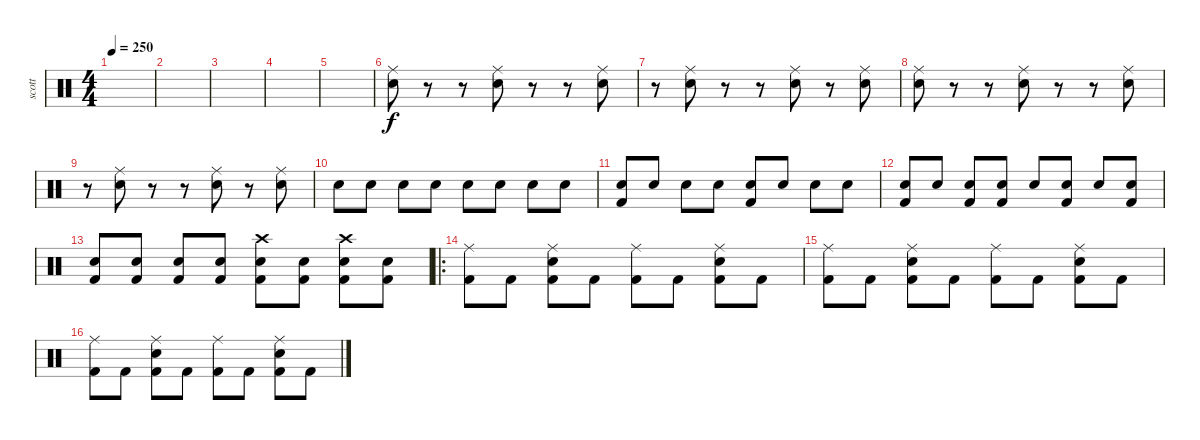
\track ("scott" "scott") {instrument percussion bank 10}
\staff {score}
\articulation defaults
\ts (4 4)
\tempo 250
\clef neutral
\ks c
|
|
|
|
|
("Electric Snare (hit)" "Ride (middle)").8 r.8 r.8 ("Electric Snare (hit)" "Ride (middle)").8 r.8 r.8 ("Electric Snare (hit)" "Ride (middle)").8 |
r.8 ("Electric Snare (hit)" "Ride (middle)").8 r.8 r.8 ("Electric Snare (hit)" "Ride (middle)").8 r.8 ("Electric Snare (hit)" "Ride (middle)").8 |
("Electric Snare (hit)" "Ride (middle)").8 r.8 r.8 ("Electric Snare (hit)" "Ride (middle)").8 r.8 r.8 ("Electric Snare (hit)" "Ride (middle)").8 |
r.8 ("Electric Snare (hit)" "Ride (middle)").8 r.8 r.8 ("Electric Snare (hit)" "Ride (middle)").8 r.8 ("Electric Snare (hit)" "Ride (middle)").8 |
"Electric Snare (hit)".8 "Electric Snare (hit)".8 "Electric Snare (hit)".8 "Electric Snare (hit)".8 "Electric Snare (hit)".8 "Electric Snare (hit)".8 "Electric Snare (hit)".8 "Electric Snare (hit)".8 |
("Kick (hit) 2" "Electric Snare (hit)").8 "Electric Snare (hit)".8 "Electric Snare (hit)".8 "Electric Snare (hit)".8 ("Kick (hit) 2" "Electric Snare (hit)").8 "Electric Snare (hit)".8 "Electric Snare (hit)".8 "Electric Snare (hit)".8 |
("Kick (hit) 2" "Electric Snare (hit)").8 "Electric Snare (hit)".8 ("Kick (hit) 2" "Electric Snare (hit)").8 ("Kick (hit) 2" "Electric Snare (hit)").8 "Electric Snare (hit)".8 ("Kick (hit) 2" "Electric Snare (hit)").8 "Electric Snare (hit)".8 ("Kick (hit) 2" "Electric Snare (hit)").8 |
("Kick (hit) 2" "Electric Snare (hit)").8 ("Kick (hit) 2" "Electric Snare (hit)").8 ("Kick (hit) 2" "Electric Snare (hit)").8 ("Kick (hit) 2" "Electric Snare (hit)").8 ("Kick (hit) 2" "Electric Snare (hit)" "Crash high (hit)").8 ("Kick (hit) 2" "Electric Snare (hit)").8 ("Kick (hit) 2" "Electric Snare (hit)" "Crash high (hit)").8 ("Kick (hit) 2" "Electric Snare (hit)").8 |
\ro
("Kick (hit) 2" "Ride (middle)").8 "Kick (hit) 2".8 ("Kick (hit) 2" "Snare (hit) 2" "Ride (middle)").8 "Kick (hit) 2".8 ("Kick (hit) 2" "Ride (middle)").8 "Kick (hit) 2".8 ("Kick (hit) 2" "Snare (hit) 2" "Ride (middle)").8 "Kick (hit) 2".8 |
("Kick (hit) 2" "Ride (middle)").8 "Kick (hit) 2".8 ("Kick (hit) 2" "Snare (hit) 2" "Ride (middle)").8 "Kick (hit) 2".8 ("Kick (hit) 2" "Ride (middle)").8 "Kick (hit) 2".8 ("Kick (hit) 2" "Snare (hit) 2" "Ride (middle)").8 "Kick (hit) 2".8 |
("Kick (hit) 2" "Ride (middle)").8 "Kick (hit) 2".8 ("Kick (hit) 2" "Snare (hit) 2" "Ride (middle)").8 "Kick (hit) 2".8 ("Kick (hit) 2" "Ride (middle)").8 "Kick (hit) 2".8 ("Kick (hit) 2" "Snare (hit) 2" "Ride (middle)").8 "Kick (hit) 2".8
